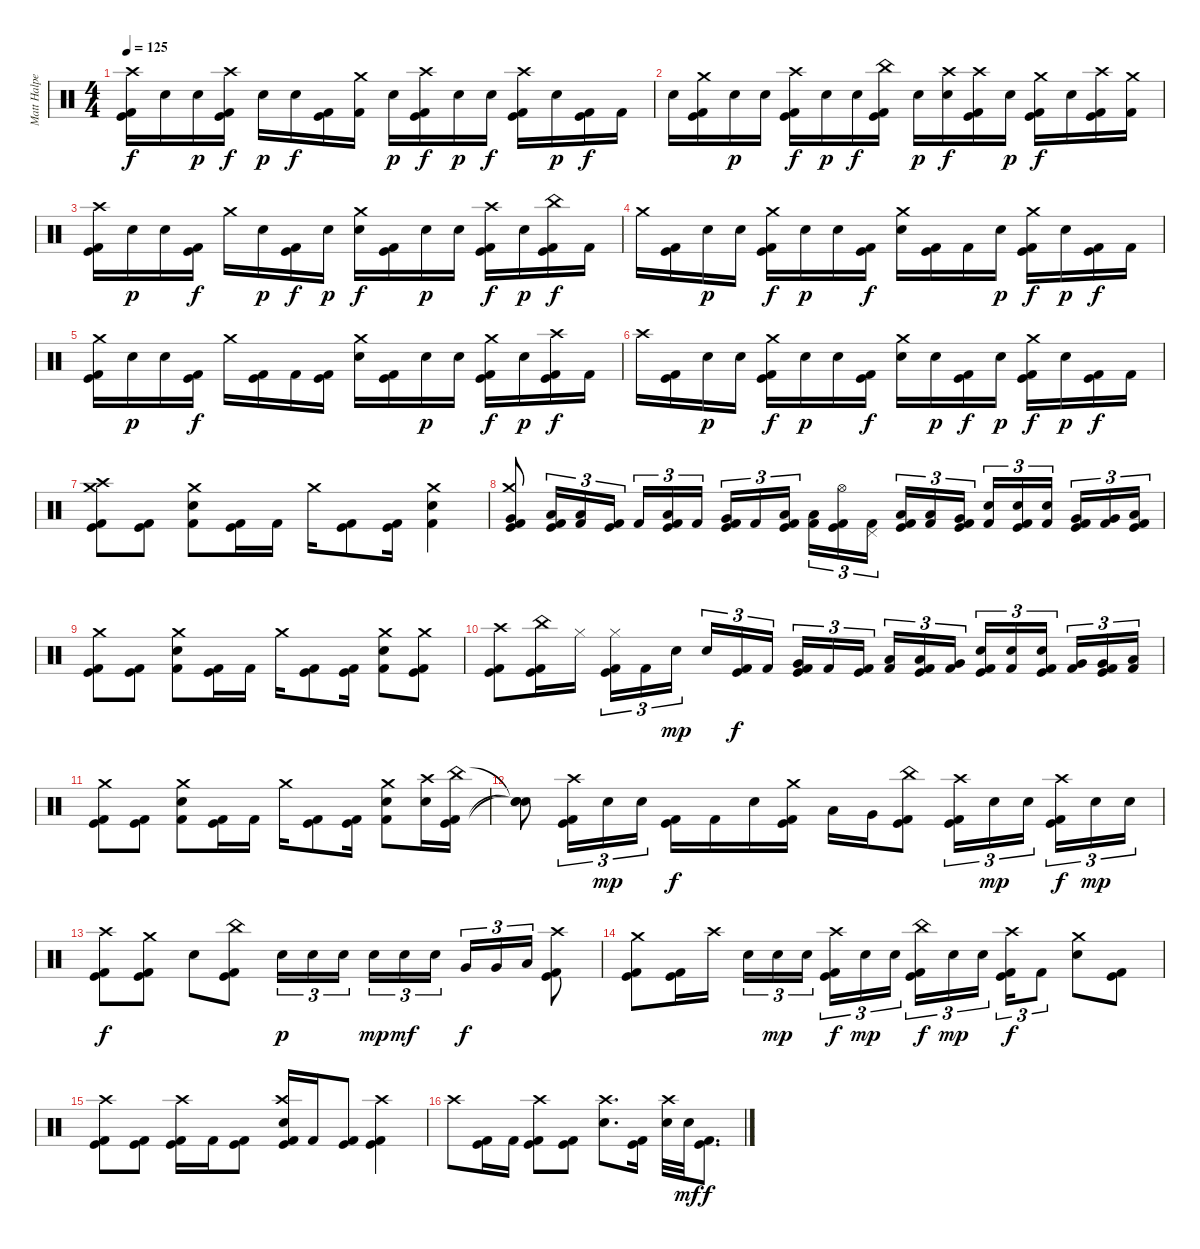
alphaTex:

\track ("Matt Halpern" "Matt Halpe") {instrument percussion}
\staff {score}
\articulation defaults
\ts (4 4)
\tempo 125
\clef neutral
\ks c
("Kick (hit) 2" "Kick (hit)" "Crash high (hit)").16{dy f} "Electric Snare (hit)".16 "Electric Snare (hit)".16{dy p} ("Kick (hit) 2" "Kick (hit)" "Crash high (hit)").16{dy f} "Electric Snare (hit)".16{dy p} "Electric Snare (hit)".16{dy f} ("Kick (hit) 2" "Kick (hit)").16 ("Kick (hit) 2" "Crash medium (hit)").16 "Electric Snare (hit)".16{dy p} ("Kick (hit) 2" "Kick (hit)" "Crash high (hit)").16{dy f} "Electric Snare (hit)".16{dy p} "Electric Snare (hit)".16{dy f} ("Kick (hit) 2" "Kick (hit)" "Crash high (hit)").16 "Electric Snare (hit)".16{dy p} ("Kick (hit) 2" "Kick (hit)").16{dy f} "Kick (hit) 2".16 |
"Electric Snare (hit)".16 ("Kick (hit) 2" "Kick (hit)" "Crash medium (hit)").16 "Electric Snare (hit)".16{dy p} "Electric Snare (hit)".16 ("Kick (hit) 2" "Kick (hit)" "Crash high (hit)").16{dy f} "Electric Snare (hit)".16{dy p} "Electric Snare (hit)".16{dy f} ("Kick (hit) 2" "Kick (hit)" "China (hit)").16 "Electric Snare (hit)".16{dy p} ("Electric Snare (hit)" "Crash high (hit)").16{dy f} ("Kick (hit) 2" "Kick (hit)" "Crash high (hit)").16 "Electric Snare (hit)".16{dy p} ("Kick (hit) 2" "Kick (hit)" "Crash medium (hit)").16{dy f} "Electric Snare (hit)".16 ("Kick (hit) 2" "Kick (hit)" "Crash high (hit)").16 ("Kick (hit) 2" "Crash medium (hit)").16 |
("Kick (hit) 2" "Kick (hit)" "Crash high (hit)").16 "Electric Snare (hit)".16{dy p} "Electric Snare (hit)".16 ("Kick (hit) 2" "Kick (hit)").16{dy f} "Crash medium (hit)".16 "Electric Snare (hit)".16{dy p} ("Kick (hit) 2" "Kick (hit)").16{dy f} "Electric Snare (hit)".16{dy p} ("Electric Snare (hit)" "Crash medium (hit)").16{dy f} ("Kick (hit) 2" "Kick (hit)").16 "Electric Snare (hit)".16{dy p} "Electric Snare (hit)".16 ("Kick (hit) 2" "Kick (hit)" "Crash high (hit)").16{dy f} "Electric Snare (hit)".16{dy p} ("Kick (hit) 2" "Kick (hit)" "China (hit)").16{dy f} "Kick (hit) 2".16 |
"Crash medium (hit)".16 ("Kick (hit) 2" "Kick (hit)").16 "Electric Snare (hit)".16{dy p} "Electric Snare (hit)".16 ("Kick (hit) 2" "Kick (hit)" "Crash medium (hit)").16{dy f} "Electric Snare (hit)".16{dy p} "Electric Snare (hit)".16 ("Kick (hit) 2" "Kick (hit)").16{dy f} ("Electric Snare (hit)" "Crash medium (hit)").16 ("Kick (hit) 2" "Kick (hit)").16 "Kick (hit) 2".16 "Electric Snare (hit)".16{dy p} ("Kick (hit) 2" "Kick (hit)" "Crash medium (hit)").16{dy f} "Electric Snare (hit)".16{dy p} ("Kick (hit) 2" "Kick (hit)").16{dy f} "Kick (hit) 2".16 |
("Kick (hit) 2" "Kick (hit)" "Crash medium (hit)").16 "Electric Snare (hit)".16{dy p} "Electric Snare (hit)".16 ("Kick (hit) 2" "Kick (hit)").16{dy f} "Crash medium (hit)".16 ("Kick (hit) 2" "Kick (hit)").16 "Kick (hit) 2".16 ("Kick (hit) 2" "Kick (hit)").16 ("Electric Snare (hit)" "Crash medium (hit)").16 ("Kick (hit) 2" "Kick (hit)").16 "Electric Snare (hit)".16{dy p} "Electric Snare (hit)".16 ("Kick (hit) 2" "Kick (hit)" "Crash medium (hit)").16{dy f} "Electric Snare (hit)".16{dy p} ("Kick (hit) 2" "Kick (hit)" "Crash high (hit)").16{dy f} "Kick (hit) 2".16 |
"Crash high (hit)".16 ("Kick (hit) 2" "Kick (hit)").16 "Electric Snare (hit)".16{dy p} "Electric Snare (hit)".16 ("Kick (hit) 2" "Kick (hit)" "Crash medium (hit)").16{dy f} "Electric Snare (hit)".16{dy p} "Electric Snare (hit)".16 ("Kick (hit) 2" "Kick (hit)").16{dy f} ("Electric Snare (hit)" "Crash medium (hit)").16 "Electric Snare (hit)".16{dy p} ("Kick (hit) 2" "Kick (hit)").16{dy f} "Electric Snare (hit)".16{dy p} ("Kick (hit) 2" "Kick (hit)" "Crash medium (hit)").16{dy f} "Electric Snare (hit)".16{dy p} ("Kick (hit) 2" "Kick (hit)").16{dy f} "Kick (hit) 2".16 |
("Kick (hit) 2" "Kick (hit)" "Crash high (hit)" "Crash medium (hit)").8 ("Kick (hit) 2" "Kick (hit)").8 ("Kick (hit) 2" "Electric Snare (hit)" "Crash medium (hit)").8 ("Kick (hit) 2" "Kick (hit)").16 "Kick (hit) 2".16 "Crash medium (hit)".16 ("Kick (hit) 2" "Kick (hit)").8 ("Kick (hit) 2" "Kick (hit)").16 ("Kick (hit) 2" "Electric Snare (hit)" "Crash medium (hit)").4 |
("Kick (hit) 2" "Kick (hit)" "Very Low Tom (hit)" "Crash medium (hit)").8 ("Kick (hit) 2" "Kick (hit)" "Low Tom (hit)").16{tu (3 2)} ("Kick (hit) 2" "Low Tom (hit)").16{tu (3 2)} ("Kick (hit) 2" "Kick (hit)").16{tu (3 2)} "Kick (hit) 2".16{tu (3 2)} ("Kick (hit) 2" "Kick (hit)" "Low Tom (hit)").16{tu (3 2)} "Kick (hit) 2".16{tu (3 2) beam splitsecondary} ("Kick (hit) 2" "Kick (hit)" "Very Low Tom (hit)").16{tu (3 2)} "Kick (hit) 2".16{tu (3 2)} ("Kick (hit) 2" "Kick (hit)" "Low Tom (hit)").16{tu (3 2)} ("Kick (hit) 2" "Low Tom (hit)").16{tu (3 2)} ("Kick (hit) 2" "Kick (hit)" "Hi-Hat (open)").16{tu (3 2)} ("Kick (hit) 2" "Pedal Hi-Hat (hit)").16{tu (3 2) beam splitsecondary} ("Kick (hit) 2" "Kick (hit)" "Low Tom (hit)").16{tu (3 2)} ("Kick (hit) 2" "Low Tom (hit)").16{tu (3 2)} ("Kick (hit) 2" "Kick (hit)" "Very Low Tom (hit)").16{tu (3 2)} ("Kick (hit) 2" "Electric Snare (hit)").16{tu (3 2)} ("Kick (hit) 2" "Kick (hit)" "Electric Snare (hit)").16{tu (3 2)} ("Kick (hit) 2" "Electric Snare (hit)").16{tu (3 2) beam splitsecondary} ("Kick (hit) 2" "Kick (hit)" "Very Low Tom (hit)").16{tu (3 2)} ("Kick (hit) 2" "Very Low Tom (hit)").16{tu (3 2)} ("Kick (hit) 2" "Kick (hit)" "Low Floor Tom (hit)").16{tu (3 2)} |
("Kick (hit) 2" "Kick (hit)" "Crash medium (hit)").8 ("Kick (hit) 2" "Kick (hit)").8 ("Kick (hit) 2" "Electric Snare (hit)" "Crash medium (hit)").8 ("Kick (hit) 2" "Kick (hit)").16 "Kick (hit) 2".16 "Crash medium (hit)".16 ("Kick (hit) 2" "Kick (hit)").8 ("Kick (hit) 2" "Kick (hit)").16 ("Kick (hit) 2" "Electric Snare (hit)" "Crash medium (hit)").8 ("Kick (hit) 2" "Kick (hit)" "Crash medium (hit)").8 |
("Kick (hit) 2" "Kick (hit)" "Crash high (hit)").8 ("Kick (hit) 2" "Kick (hit)" "China (hit)").16 "Hi-Hat (closed)".16 ("Kick (hit) 2" "Kick (hit)" "Hi-Hat (closed)").16{tu (3 2)} "Kick (hit) 2".16{tu (3 2)} "Electric Snare (hit)".16{tu (3 2) dy mp beam splitsecondary} "Electric Snare (hit)".16{tu (3 2)} ("Kick (hit) 2" "Kick (hit)").16{tu (3 2) dy f} "Kick (hit) 2".16{tu (3 2)} ("Kick (hit) 2" "Kick (hit)" "Very Low Tom (hit)").16{tu (3 2)} "Kick (hit) 2".16{tu (3 2)} ("Kick (hit) 2" "Kick (hit)").16{tu (3 2) beam splitsecondary} ("Kick (hit) 2" "Low Tom (hit)").16{tu (3 2)} ("Kick (hit) 2" "Kick (hit)" "Low Tom (hit)").16{tu (3 2)} ("Kick (hit) 2" "Very Low Tom (hit)").16{tu (3 2)} ("Kick (hit) 2" "Kick (hit)" "Electric Snare (hit)").16{tu (3 2)} ("Kick (hit) 2" "Electric Snare (hit)").16{tu (3 2)} ("Kick (hit) 2" "Kick (hit)" "Electric Snare (hit)").16{tu (3 2) beam splitsecondary} ("Kick (hit) 2" "Very Low Tom (hit)").16{tu (3 2)} ("Kick (hit) 2" "Kick (hit)" "Very Low Tom (hit)").16{tu (3 2)} ("Kick (hit) 2" "Low Floor Tom (hit)").16{tu (3 2)} |
("Kick (hit) 2" "Kick (hit)" "Crash medium (hit)").8 ("Kick (hit) 2" "Kick (hit)").8 ("Kick (hit) 2" "Electric Snare (hit)" "Crash medium (hit)").8 ("Kick (hit) 2" "Kick (hit)").16 "Kick (hit) 2".16 "Crash medium (hit)".16 ("Kick (hit) 2" "Kick (hit)").8 ("Kick (hit) 2" "Kick (hit)").16 ("Kick (hit) 2" "Electric Snare (hit)" "Crash medium (hit)").8 ("Electric Snare (hit)" "Crash high (hit)").16 ("Kick (hit) 2" "Kick (hit)" "China (hit)").16 |
("Snare (hit)"{t} "Snare (hit)"{t} "Snare (hit)"{t}).8 ("Kick (hit) 2" "Kick (hit)" "Crash high (hit)").16{tu (3 2)} "Electric Snare (hit)".16{tu (3 2) dy mp} "Electric Snare (hit)".16{tu (3 2)} ("Kick (hit) 2" "Kick (hit)").16{dy f} "Kick (hit) 2".16 "Electric Snare (hit)".16 ("Kick (hit) 2" "Kick (hit)" "Crash medium (hit)").16 "Low Tom (hit)".16 "Very Low Tom (hit)".16 ("Kick (hit) 2" "Kick (hit)" "China (hit)").8 ("Kick (hit) 2" "Kick (hit)" "Crash high (hit)").16{tu (3 2)} "Electric Snare (hit)".16{tu (3 2) dy mp} "Electric Snare (hit)".16{tu (3 2) beam splitsecondary} ("Kick (hit) 2" "Kick (hit)" "Crash high (hit)").16{tu (3 2) dy f} "Electric Snare (hit)".16{tu (3 2) dy mp} "Electric Snare (hit)".16{tu (3 2)} |
("Kick (hit) 2" "Kick (hit)" "Crash high (hit)").8{dy f} ("Kick (hit) 2" "Kick (hit)" "Crash medium (hit)").8 "Electric Snare (hit)".8 ("Kick (hit) 2" "Kick (hit)" "China (hit)").8 "Electric Snare (hit)".16{tu (3 2) dy p} "Electric Snare (hit)".16{tu (3 2)} "Electric Snare (hit)".16{tu (3 2) beam splitsecondary} "Electric Snare (hit)".16{tu (3 2) dy mp} "Electric Snare (hit)".16{tu (3 2) dy mf} "Electric Snare (hit)".16{tu (3 2)} "Very Low Tom (hit)".16{tu (3 2) dy f} "Very Low Tom (hit)".16{tu (3 2)} "Low Floor Tom (hit)".16{tu (3 2)} ("Kick (hit) 2" "Kick (hit)" "Crash high (hit)").8 |
("Kick (hit) 2" "Kick (hit)" "Crash medium (hit)").8 ("Kick (hit) 2" "Kick (hit)").16 "Crash high (hit)".16 "Electric Snare (hit)".16{tu (3 2)} "Electric Snare (hit)".16{tu (3 2) dy mp} "Electric Snare (hit)".16{tu (3 2) beam splitsecondary} ("Kick (hit) 2" "Kick (hit)" "Crash high (hit)").16{tu (3 2) dy f} "Electric Snare (hit)".16{tu (3 2) dy mp} "Electric Snare (hit)".16{tu (3 2)} ("Kick (hit) 2" "Kick (hit)" "China (hit)").16{tu (3 2) dy f} "Electric Snare (hit)".16{tu (3 2) dy mp} "Electric Snare (hit)".16{tu (3 2) beam splitsecondary} ("Kick (hit) 2" "Kick (hit)" "Crash high (hit)").16{tu (3 2) dy f} "Kick (hit) 2".8{tu (3 2)} ("Electric Snare (hit)" "Crash medium (hit)").8 ("Kick (hit) 2" "Kick (hit)").8 |
("Kick (hit) 2" "Kick (hit)" "Crash high (hit)").8 ("Kick (hit) 2" "Kick (hit)").8 ("Kick (hit) 2" "Kick (hit)" "Crash high (hit)").16 "Kick (hit) 2".16 ("Kick (hit) 2" "Kick (hit)").8 ("Kick (hit) 2" "Kick (hit)" "Electric Snare (hit)" "Crash high (hit)").16 "Kick (hit) 2".16 ("Kick (hit) 2" "Kick (hit)").8 ("Kick (hit) 2" "Kick (hit)" "Crash high (hit)").4 |
"Crash high (hit)".8 ("Kick (hit) 2" "Kick (hit)").16 "Kick (hit) 2".16 ("Kick (hit) 2" "Kick (hit)" "Crash high (hit)").8 ("Kick (hit) 2" "Kick (hit)").8 ("Electric Snare (hit)" "Crash high (hit)").8{d} ("Kick (hit) 2" "Kick (hit)").16 ("Electric Snare (hit)" "Crash high (hit)").32 "Electric Snare (hit)".32{dy mf} ("Kick (hit) 2" "Kick (hit)").8{d dy f}
